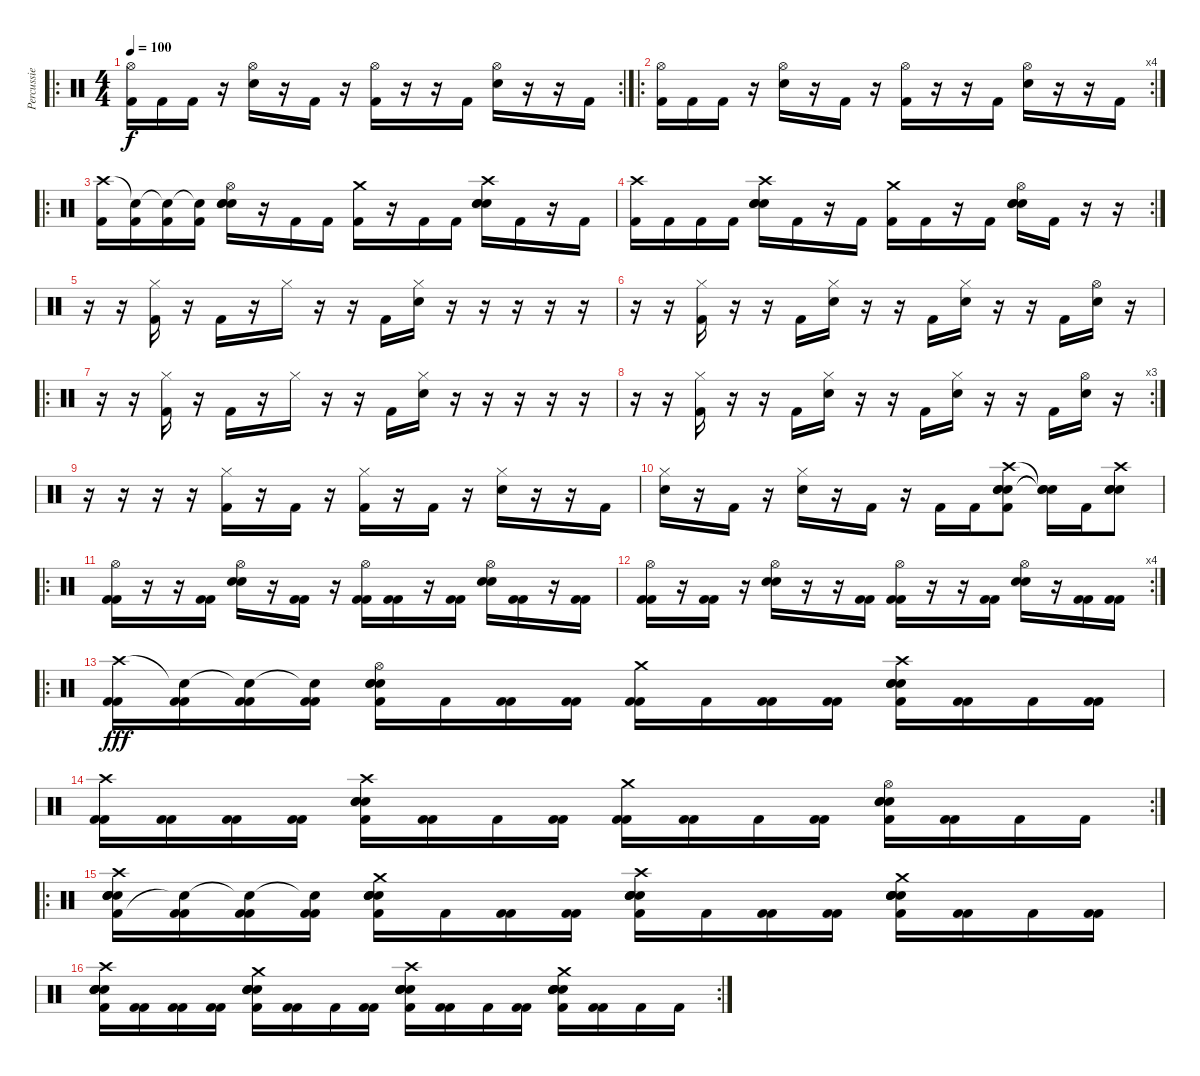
\track ("Percussie" "Percussie") {instrument percussion}
\staff {score}
\articulation defaults
\ro
\rc 2
\ts (4 4)
\tempo 100
\clef neutral
\ks c
("Hi-Hat (open)" "Kick (hit) 2").16{dy f} "Kick (hit) 2".16 "Kick (hit) 2".16 r.16 ("Hi-Hat (open)" "Electric Snare (hit)").16 r.16 "Kick (hit) 2".16 r.16 ("Hi-Hat (open)" "Kick (hit) 2").16 r.16 r.16 "Kick (hit) 2".16 ("Hi-Hat (open)" "Electric Snare (hit)").16 r.16 r.16 "Kick (hit) 2".16 |
\ro
\rc 4
("Hi-Hat (open)" "Kick (hit) 2").16 "Kick (hit) 2".16 "Kick (hit) 2".16 r.16 ("Hi-Hat (open)" "Electric Snare (hit)").16 r.16 "Kick (hit) 2".16 r.16 ("Hi-Hat (open)" "Kick (hit) 2").16 r.16 r.16 "Kick (hit) 2".16 ("Hi-Hat (open)" "Electric Snare (hit)").16 r.16 r.16 "Kick (hit) 2".16 |
\ro
("Crash high (hit)" "Kick (hit) 2").16 ("Snare (hit)"{t} "Kick (hit) 2").16 ("Snare (hit)"{t} "Kick (hit) 2").16 ("Snare (hit)"{t} "Kick (hit) 2").16 ("Hi-Hat (open)" "Electric Snare (hit)" "Electric Snare (hit)" "Electric Snare (hit)").16 r.16 "Kick (hit) 2".16 "Kick (hit) 2".16 ("Crash medium (hit)" "Kick (hit) 2").16 r.16 "Kick (hit) 2".16 "Kick (hit) 2".16 ("Crash high (hit)" "Electric Snare (hit)" "Electric Snare (hit)" "Electric Snare (hit)").16 "Kick (hit) 2".16 r.16 "Kick (hit) 2".16 |
\rc 2
("Crash high (hit)" "Kick (hit) 2").16 "Kick (hit) 2".16 "Kick (hit) 2".16 "Kick (hit) 2".16 ("Crash high (hit)" "Electric Snare (hit)" "Electric Snare (hit)" "Electric Snare (hit)").16 "Kick (hit) 2".16 r.16 "Kick (hit) 2".16 ("Crash medium (hit)" "Kick (hit) 2").16 "Kick (hit) 2".16 r.16 "Kick (hit) 2".16 ("Hi-Hat (open)" "Electric Snare (hit)" "Electric Snare (hit)" "Electric Snare (hit)").16 "Kick (hit) 2".16 r.16 r.16 |
r.16 r.16 ("Hi-Hat (closed)" "Kick (hit) 2").16 r.16 "Kick (hit) 2".16 r.16 "Hi-Hat (closed)".16 r.16 r.16 "Kick (hit) 2".16 ("Hi-Hat (closed)" "Electric Snare (hit)").16 r.16 r.16 r.16 r.16 r.16 |
r.16 r.16 ("Hi-Hat (closed)" "Kick (hit) 2").16 r.16 r.16 "Kick (hit) 2".16 ("Hi-Hat (closed)" "Electric Snare (hit)").16 r.16 r.16 "Kick (hit) 2".16 ("Hi-Hat (closed)" "Electric Snare (hit)").16 r.16 r.16 "Kick (hit) 2".16 ("Hi-Hat (open)" "Electric Snare (hit)").16 r.16 |
\ro
r.16 r.16 ("Hi-Hat (closed)" "Kick (hit) 2").16 r.16 "Kick (hit) 2".16 r.16 "Hi-Hat (closed)".16 r.16 r.16 "Kick (hit) 2".16 ("Hi-Hat (closed)" "Electric Snare (hit)").16 r.16 r.16 r.16 r.16 r.16 |
\rc 3
r.16 r.16 ("Hi-Hat (closed)" "Kick (hit) 2").16 r.16 r.16 "Kick (hit) 2".16 ("Hi-Hat (closed)" "Electric Snare (hit)").16 r.16 r.16 "Kick (hit) 2".16 ("Hi-Hat (closed)" "Electric Snare (hit)").16 r.16 r.16 "Kick (hit) 2".16 ("Hi-Hat (open)" "Electric Snare (hit)").16 r.16 |
r.16 r.16 r.16 r.16 ("Hi-Hat (closed)" "Kick (hit) 2").16 r.16 "Kick (hit) 2".16 r.16 ("Hi-Hat (closed)" "Kick (hit) 2").16 r.16 "Kick (hit) 2".16 r.16 ("Hi-Hat (closed)" "Electric Snare (hit)").16 r.16 r.16 "Kick (hit) 2".16 |
("Hi-Hat (closed)" "Electric Snare (hit)").16 r.16 "Kick (hit) 2".16 r.16 ("Hi-Hat (closed)" "Electric Snare (hit)").16 r.16 "Kick (hit) 2".16 r.16 "Kick (hit) 2".16 "Kick (hit) 2".16 ("Crash high (hit)" "Electric Snare (hit)" "Electric Snare (hit)" "Electric Snare (hit)" "Kick (hit) 2").8 ("Snare (hit)"{t} "Snare (hit)"{t} "Snare (hit)"{t}).16 "Kick (hit) 2".16 ("Crash high (hit)" "Electric Snare (hit)" "Electric Snare (hit)" "Electric Snare (hit)").8 |
\ro
("Hi-Hat (open)" "Kick (hit) 2" "Kick (hit) 2").16 r.16 r.16 ("Kick (hit) 2" "Kick (hit) 2").16 ("Hi-Hat (open)" "Electric Snare (hit)" "Electric Snare (hit)").16 r.16 ("Kick (hit) 2" "Kick (hit) 2").16 r.16 ("Hi-Hat (open)" "Kick (hit) 2" "Kick (hit) 2").16 ("Kick (hit) 2" "Kick (hit) 2").16 r.16 ("Kick (hit) 2" "Kick (hit) 2").16 ("Hi-Hat (open)" "Electric Snare (hit)" "Electric Snare (hit)").16 ("Kick (hit) 2" "Kick (hit) 2").16 r.16 ("Kick (hit) 2" "Kick (hit) 2").16 |
\rc 4
("Hi-Hat (open)" "Kick (hit) 2" "Kick (hit) 2").16 r.16 ("Kick (hit) 2" "Kick (hit) 2").16 r.16 ("Hi-Hat (open)" "Electric Snare (hit)" "Electric Snare (hit)").16 r.16 r.16 ("Kick (hit) 2" "Kick (hit) 2").16 ("Hi-Hat (open)" "Kick (hit) 2" "Kick (hit) 2").16 r.16 r.16 ("Kick (hit) 2" "Kick (hit) 2").16 ("Hi-Hat (open)" "Electric Snare (hit)" "Electric Snare (hit)").16 r.16 ("Kick (hit) 2" "Kick (hit) 2").16 ("Kick (hit) 2" "Kick (hit) 2").16 |
\ro
("Kick (hit) 2" "Crash high (hit)" "Kick (hit) 2").16{dy fff} ("Kick (hit) 2" "Snare (hit)"{t} "Kick (hit) 2").16 ("Kick (hit) 2" "Snare (hit)"{t} "Kick (hit) 2").16 ("Kick (hit) 2" "Snare (hit)"{t} "Kick (hit) 2").16 ("Kick (hit) 2" "Hi-Hat (open)" "Electric Snare (hit)" "Electric Snare (hit)" "Electric Snare (hit)").16 "Kick (hit) 2".16 ("Kick (hit) 2" "Kick (hit) 2").16 ("Kick (hit) 2" "Kick (hit) 2").16 ("Kick (hit) 2" "Crash medium (hit)" "Kick (hit) 2").16 "Kick (hit) 2".16 ("Kick (hit) 2" "Kick (hit) 2").16 ("Kick (hit) 2" "Kick (hit) 2").16 ("Kick (hit) 2" "Crash high (hit)" "Electric Snare (hit)" "Electric Snare (hit)" "Electric Snare (hit)").16 ("Kick (hit) 2" "Kick (hit) 2").16 "Kick (hit) 2".16 ("Kick (hit) 2" "Kick (hit) 2").16 |
\rc 2
("Kick (hit) 2" "Crash high (hit)" "Kick (hit) 2").16 ("Kick (hit) 2" "Kick (hit) 2").16 ("Kick (hit) 2" "Kick (hit) 2").16 ("Kick (hit) 2" "Kick (hit) 2").16 ("Kick (hit) 2" "Crash high (hit)" "Electric Snare (hit)" "Electric Snare (hit)" "Electric Snare (hit)").16 ("Kick (hit) 2" "Kick (hit) 2").16 "Kick (hit) 2".16 ("Kick (hit) 2" "Kick (hit) 2").16 ("Kick (hit) 2" "Crash medium (hit)" "Kick (hit) 2").16 ("Kick (hit) 2" "Kick (hit) 2").16 "Kick (hit) 2".16 ("Kick (hit) 2" "Kick (hit) 2").16 ("Kick (hit) 2" "Hi-Hat (open)" "Electric Snare (hit)" "Electric Snare (hit)" "Electric Snare (hit)").16 ("Kick (hit) 2" "Kick (hit) 2").16 "Kick (hit) 2".16 "Kick (hit) 2".16 |
\ro
("Crash high (hit)" "Kick (hit) 2" "Electric Snare (hit)" "Electric Snare (hit)" "Electric Snare (hit)" "Electric Snare (hit)").16 ("Kick (hit) 2" "Snare (hit)"{t} "Kick (hit) 2").16 ("Kick (hit) 2" "Snare (hit)"{t} "Kick (hit) 2").16 ("Kick (hit) 2" "Snare (hit)"{t} "Kick (hit) 2").16 ("Crash medium (hit)" "Kick (hit) 2" "Electric Snare (hit)" "Electric Snare (hit)" "Electric Snare (hit)" "Electric Snare (hit)").16 "Kick (hit) 2".16 ("Kick (hit) 2" "Kick (hit) 2").16 ("Kick (hit) 2" "Kick (hit) 2").16 ("Crash high (hit)" "Kick (hit) 2" "Electric Snare (hit)" "Electric Snare (hit)" "Electric Snare (hit)" "Electric Snare (hit)").16 "Kick (hit) 2".16 ("Kick (hit) 2" "Kick (hit) 2").16 ("Kick (hit) 2" "Kick (hit) 2").16 ("Crash medium (hit)" "Kick (hit) 2" "Electric Snare (hit)" "Electric Snare (hit)" "Electric Snare (hit)" "Electric Snare (hit)").16 ("Kick (hit) 2" "Kick (hit) 2").16 "Kick (hit) 2".16 ("Kick (hit) 2" "Kick (hit) 2").16 |
\rc 2
("Crash high (hit)" "Kick (hit) 2" "Electric Snare (hit)" "Electric Snare (hit)" "Electric Snare (hit)" "Electric Snare (hit)").16 ("Kick (hit) 2" "Kick (hit) 2").16 ("Kick (hit) 2" "Kick (hit) 2").16 ("Kick (hit) 2" "Kick (hit) 2").16 ("Crash medium (hit)" "Kick (hit) 2" "Electric Snare (hit)" "Electric Snare (hit)" "Electric Snare (hit)" "Electric Snare (hit)").16 ("Kick (hit) 2" "Kick (hit) 2").16 "Kick (hit) 2".16 ("Kick (hit) 2" "Kick (hit) 2").16 ("Crash high (hit)" "Kick (hit) 2" "Electric Snare (hit)" "Electric Snare (hit)" "Electric Snare (hit)" "Electric Snare (hit)").16 ("Kick (hit) 2" "Kick (hit) 2").16 "Kick (hit) 2".16 ("Kick (hit) 2" "Kick (hit) 2").16 ("Crash medium (hit)" "Kick (hit) 2" "Electric Snare (hit)" "Electric Snare (hit)" "Electric Snare (hit)" "Electric Snare (hit)").16 ("Kick (hit) 2" "Kick (hit) 2").16 "Kick (hit) 2".16 "Kick (hit) 2".16
